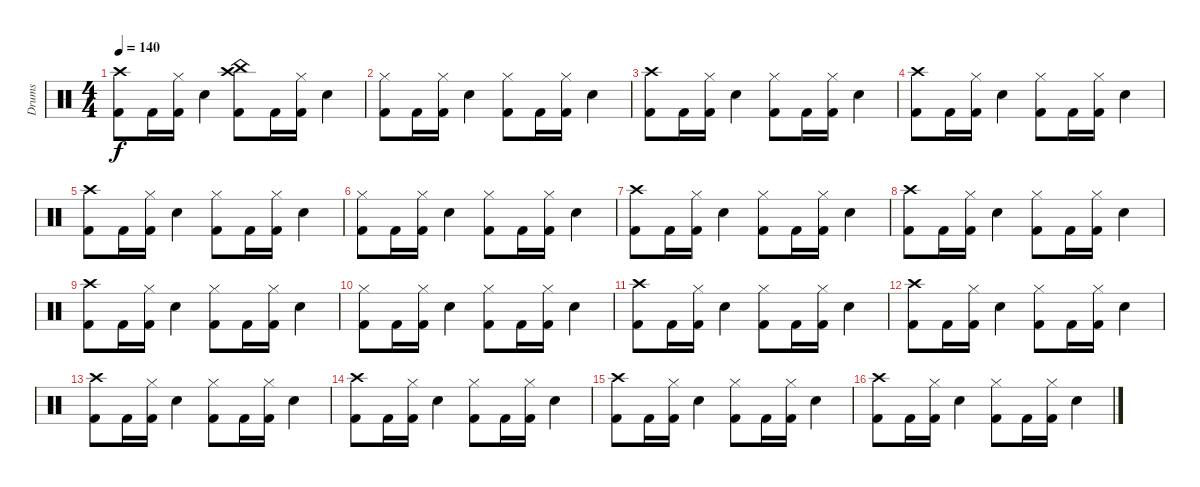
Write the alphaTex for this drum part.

\track ("Drums" "Drums") {instrument percussion}
\staff {score}
\articulation defaults
\ts (4 4)
\tempo 140
\clef neutral
\ks c
("Crash high (hit)" "Kick (hit) 2").8{dy f} "Kick (hit) 2".16 ("Hi-Hat (closed)" "Kick (hit) 2").16 "Electric Snare (hit)".4 ("China (hit)" "Crash high (hit)" "Kick (hit) 2").8 "Kick (hit) 2".16 ("Hi-Hat (closed)" "Kick (hit) 2").16 "Electric Snare (hit)".4 |
("Hi-Hat (closed)" "Kick (hit) 2").8 "Kick (hit) 2".16 ("Hi-Hat (closed)" "Kick (hit) 2").16 "Electric Snare (hit)".4 ("Hi-Hat (closed)" "Kick (hit) 2").8 "Kick (hit) 2".16 ("Hi-Hat (closed)" "Kick (hit) 2").16 "Electric Snare (hit)".4 |
("Crash high (hit)" "Kick (hit) 2").8 "Kick (hit) 2".16 ("Hi-Hat (closed)" "Kick (hit) 2").16 "Electric Snare (hit)".4 ("Hi-Hat (closed)" "Kick (hit) 2").8 "Kick (hit) 2".16 ("Hi-Hat (closed)" "Kick (hit) 2").16 "Electric Snare (hit)".4 |
("Crash high (hit)" "Kick (hit) 2").8 "Kick (hit) 2".16 ("Hi-Hat (closed)" "Kick (hit) 2").16 "Electric Snare (hit)".4 ("Hi-Hat (closed)" "Kick (hit) 2").8 "Kick (hit) 2".16 ("Hi-Hat (closed)" "Kick (hit) 2").16 "Electric Snare (hit)".4 |
("Crash high (hit)" "Kick (hit) 2").8 "Kick (hit) 2".16 ("Hi-Hat (closed)" "Kick (hit) 2").16 "Electric Snare (hit)".4 ("Hi-Hat (closed)" "Kick (hit) 2").8 "Kick (hit) 2".16 ("Hi-Hat (closed)" "Kick (hit) 2").16 "Electric Snare (hit)".4 |
("Hi-Hat (closed)" "Kick (hit) 2").8 "Kick (hit) 2".16 ("Hi-Hat (closed)" "Kick (hit) 2").16 "Electric Snare (hit)".4 ("Hi-Hat (closed)" "Kick (hit) 2").8 "Kick (hit) 2".16 ("Hi-Hat (closed)" "Kick (hit) 2").16 "Electric Snare (hit)".4 |
("Crash high (hit)" "Kick (hit) 2").8 "Kick (hit) 2".16 ("Hi-Hat (closed)" "Kick (hit) 2").16 "Electric Snare (hit)".4 ("Hi-Hat (closed)" "Kick (hit) 2").8 "Kick (hit) 2".16 ("Hi-Hat (closed)" "Kick (hit) 2").16 "Electric Snare (hit)".4 |
("Crash high (hit)" "Kick (hit) 2").8 "Kick (hit) 2".16 ("Hi-Hat (closed)" "Kick (hit) 2").16 "Electric Snare (hit)".4 ("Hi-Hat (closed)" "Kick (hit) 2").8 "Kick (hit) 2".16 ("Hi-Hat (closed)" "Kick (hit) 2").16 "Electric Snare (hit)".4 |
("Crash high (hit)" "Kick (hit) 2").8 "Kick (hit) 2".16 ("Hi-Hat (closed)" "Kick (hit) 2").16 "Electric Snare (hit)".4 ("Hi-Hat (closed)" "Kick (hit) 2").8 "Kick (hit) 2".16 ("Hi-Hat (closed)" "Kick (hit) 2").16 "Electric Snare (hit)".4 |
("Hi-Hat (closed)" "Kick (hit) 2").8 "Kick (hit) 2".16 ("Hi-Hat (closed)" "Kick (hit) 2").16 "Electric Snare (hit)".4 ("Hi-Hat (closed)" "Kick (hit) 2").8 "Kick (hit) 2".16 ("Hi-Hat (closed)" "Kick (hit) 2").16 "Electric Snare (hit)".4 |
("Crash high (hit)" "Kick (hit) 2").8 "Kick (hit) 2".16 ("Hi-Hat (closed)" "Kick (hit) 2").16 "Electric Snare (hit)".4 ("Hi-Hat (closed)" "Kick (hit) 2").8 "Kick (hit) 2".16 ("Hi-Hat (closed)" "Kick (hit) 2").16 "Electric Snare (hit)".4 |
("Crash high (hit)" "Kick (hit) 2").8 "Kick (hit) 2".16 ("Hi-Hat (closed)" "Kick (hit) 2").16 "Electric Snare (hit)".4 ("Hi-Hat (closed)" "Kick (hit) 2").8 "Kick (hit) 2".16 ("Hi-Hat (closed)" "Kick (hit) 2").16 "Electric Snare (hit)".4 |
("Crash high (hit)" "Kick (hit) 2").8 "Kick (hit) 2".16 ("Hi-Hat (closed)" "Kick (hit) 2").16 "Electric Snare (hit)".4 ("Hi-Hat (closed)" "Kick (hit) 2").8 "Kick (hit) 2".16 ("Hi-Hat (closed)" "Kick (hit) 2").16 "Electric Snare (hit)".4 |
("Crash high (hit)" "Kick (hit) 2").8 "Kick (hit) 2".16 ("Hi-Hat (closed)" "Kick (hit) 2").16 "Electric Snare (hit)".4 ("Hi-Hat (closed)" "Kick (hit) 2").8 "Kick (hit) 2".16 ("Hi-Hat (closed)" "Kick (hit) 2").16 "Electric Snare (hit)".4 |
("Crash high (hit)" "Kick (hit) 2").8 "Kick (hit) 2".16 ("Hi-Hat (closed)" "Kick (hit) 2").16 "Electric Snare (hit)".4 ("Hi-Hat (closed)" "Kick (hit) 2").8 "Kick (hit) 2".16 ("Hi-Hat (closed)" "Kick (hit) 2").16 "Electric Snare (hit)".4 |
("Crash high (hit)" "Kick (hit) 2").8 "Kick (hit) 2".16 ("Hi-Hat (closed)" "Kick (hit) 2").16 "Electric Snare (hit)".4 ("Hi-Hat (closed)" "Kick (hit) 2").8 "Kick (hit) 2".16 ("Hi-Hat (closed)" "Kick (hit) 2").16 "Electric Snare (hit)".4
